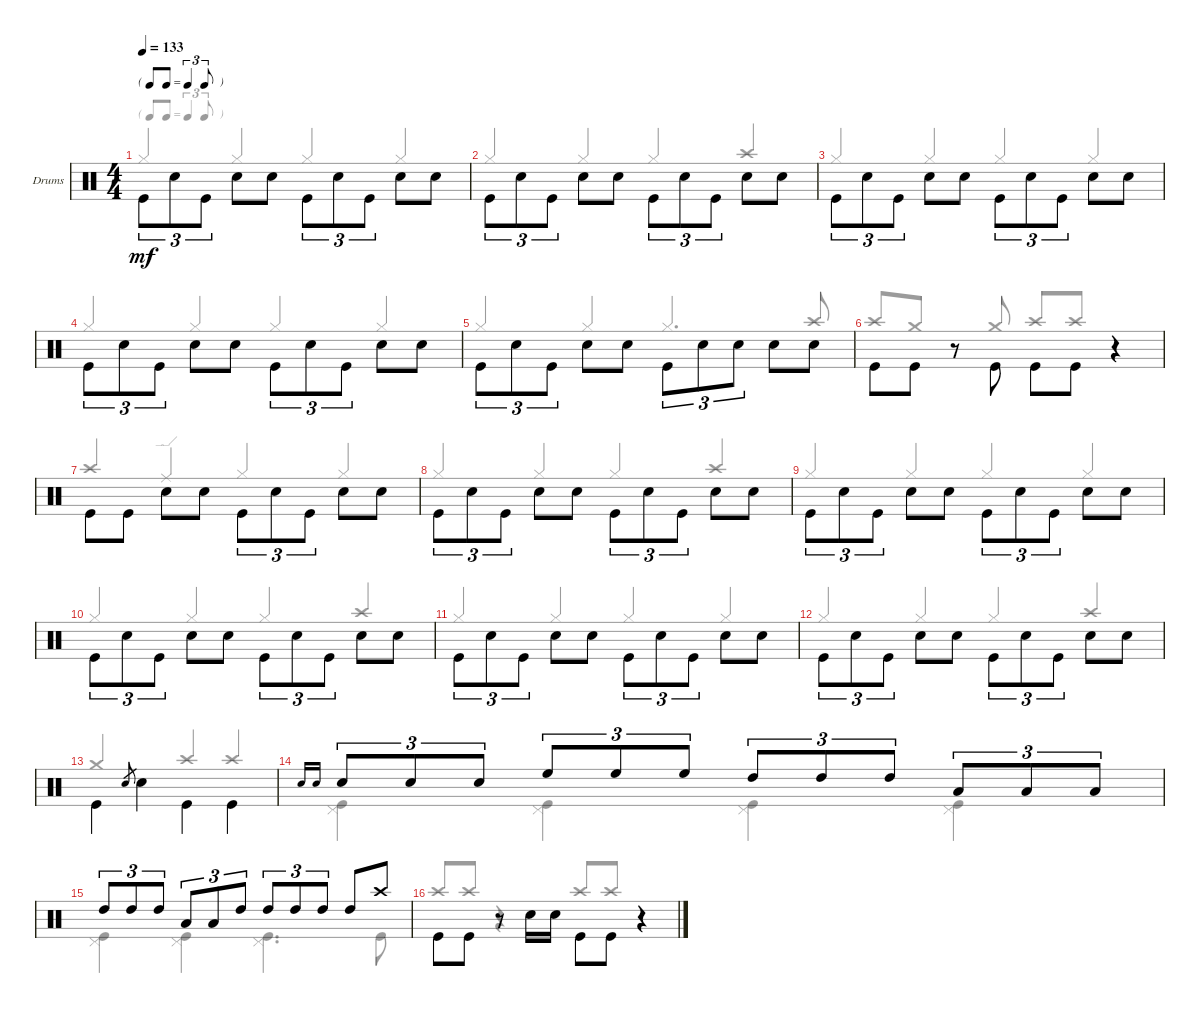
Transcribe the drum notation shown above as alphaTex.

\defaultSystemsLayout 4
\bracketExtendMode groupsimilarinstruments
\firstSystemTrackNameOrientation horizontal
\otherSystemsTrackNameOrientation horizontal
\track ("PETER CRISS" "Drums") {solo instrument percussion}
\staff {score}
\articulation defaults
\voice
\ts (4 4)
\tf triplet8th
\tempo 133
\clef neutral
\ks c "Kick (hit)".8{tu (3 2) dy mf beam invert} "Snare (hit) 2".8{tu (3 2)} "Kick (hit)".8{tu (3 2)} "Snare (hit) 2".8{beam invert} "Snare (hit) 2".8 "Kick (hit)".8{tu (3 2) beam invert} "Snare (hit) 2".8{tu (3 2)} "Kick (hit)".8{tu (3 2)} "Snare (hit) 2".8{beam invert} "Snare (hit) 2".8
|
"Kick (hit)".8{tu (3 2) beam invert} "Snare (hit) 2".8{tu (3 2)} "Kick (hit)".8{tu (3 2)} "Snare (hit) 2".8{beam invert} "Snare (hit) 2".8 "Kick (hit)".8{tu (3 2) beam invert} "Snare (hit) 2".8{tu (3 2)} "Kick (hit)".8{tu (3 2)} "Snare (hit) 2".8{beam invert} "Snare (hit) 2".8 |
"Kick (hit)".8{tu (3 2) beam invert} "Snare (hit) 2".8{tu (3 2)} "Kick (hit)".8{tu (3 2)} "Snare (hit) 2".8{beam invert} "Snare (hit) 2".8 "Kick (hit)".8{tu (3 2) beam invert} "Snare (hit) 2".8{tu (3 2)} "Kick (hit)".8{tu (3 2)} "Snare (hit) 2".8{beam invert} "Snare (hit) 2".8 |
"Kick (hit)".8{tu (3 2) beam invert} "Snare (hit) 2".8{tu (3 2)} "Kick (hit)".8{tu (3 2)} "Snare (hit) 2".8{beam invert} "Snare (hit) 2".8 "Kick (hit)".8{tu (3 2) beam invert} "Snare (hit) 2".8{tu (3 2)} "Kick (hit)".8{tu (3 2)} "Snare (hit) 2".8{beam invert} "Snare (hit) 2".8 |
"Kick (hit)".8{tu (3 2) beam invert} "Snare (hit) 2".8{tu (3 2)} "Kick (hit)".8{tu (3 2)} "Snare (hit) 2".8{beam invert} "Snare (hit) 2".8 "Kick (hit)".8{tu (3 2) beam invert} "Snare (hit) 2".8{tu (3 2)} "Snare (hit) 2".8{tu (3 2)} "Snare (hit) 2".8{beam invert} "Snare (hit) 2".8 |
"Kick (hit)".8{beam invert} "Kick (hit)".8 r.8 "Kick (hit)".8{beam invert} "Kick (hit)".8{beam invert} "Kick (hit)".8 r.4 |
"Kick (hit)".8{beam invert} "Kick (hit)".8 "Snare (hit) 2".8 "Snare (hit) 2".8{beam invert} "Kick (hit)".8{tu (3 2) beam invert} "Snare (hit) 2".8{tu (3 2)} "Kick (hit)".8{tu (3 2)} "Snare (hit) 2".8{beam invert} "Snare (hit) 2".8 |
"Kick (hit)".8{tu (3 2) beam invert} "Snare (hit) 2".8{tu (3 2)} "Kick (hit)".8{tu (3 2)} "Snare (hit) 2".8{beam invert} "Snare (hit) 2".8 "Kick (hit)".8{tu (3 2) beam invert} "Snare (hit) 2".8{tu (3 2)} "Kick (hit)".8{tu (3 2)} "Snare (hit) 2".8{beam invert} "Snare (hit) 2".8 |
"Kick (hit)".8{tu (3 2) beam invert} "Snare (hit) 2".8{tu (3 2)} "Kick (hit)".8{tu (3 2)} "Snare (hit) 2".8{beam invert} "Snare (hit) 2".8 "Kick (hit)".8{tu (3 2) beam invert} "Snare (hit) 2".8{tu (3 2)} "Kick (hit)".8{tu (3 2)} "Snare (hit) 2".8{beam invert} "Snare (hit) 2".8 |
"Kick (hit)".8{tu (3 2) beam invert} "Snare (hit) 2".8{tu (3 2)} "Kick (hit)".8{tu (3 2)} "Snare (hit) 2".8{beam invert} "Snare (hit) 2".8 "Kick (hit)".8{tu (3 2) beam invert} "Snare (hit) 2".8{tu (3 2)} "Kick (hit)".8{tu (3 2)} "Snare (hit) 2".8{beam invert} "Snare (hit) 2".8 |
"Kick (hit)".8{tu (3 2) beam invert} "Snare (hit) 2".8{tu (3 2)} "Kick (hit)".8{tu (3 2)} "Snare (hit) 2".8{beam invert} "Snare (hit) 2".8 "Kick (hit)".8{tu (3 2) beam invert} "Snare (hit) 2".8{tu (3 2)} "Kick (hit)".8{tu (3 2)} "Snare (hit) 2".8{beam invert} "Snare (hit) 2".8 |
"Kick (hit)".8{tu (3 2) beam invert} "Snare (hit) 2".8{tu (3 2)} "Kick (hit)".8{tu (3 2)} "Snare (hit) 2".8{beam invert} "Snare (hit) 2".8 "Kick (hit)".8{tu (3 2) beam invert} "Snare (hit) 2".8{tu (3 2)} "Kick (hit)".8{tu (3 2)} "Snare (hit) 2".8{beam invert} "Snare (hit) 2".8 |
"Kick (hit)".4{beam invert} "Snare (hit) 2".8{gr} "Snare (hit) 2".4{beam invert} "Kick (hit)".4{beam invert} "Kick (hit)".4{beam invert} |
"Snare (hit) 2".16{gr onbeat} "Snare (hit) 2".16{gr onbeat} "Snare (hit) 2".8{tu (3 2)} "Snare (hit) 2".8{tu (3 2)} "Snare (hit) 2".8{tu (3 2)} "High Floor Tom (hit)".8{tu (3 2)} "High Floor Tom (hit)".8{tu (3 2)} "High Floor Tom (hit)".8{tu (3 2)} "High Tom (hit)".8{tu (3 2)} "High Tom (hit)".8{tu (3 2)} "High Tom (hit)".8{tu (3 2)} "Low Tom (hit)".8{tu (3 2)} "Low Tom (hit)".8{tu (3 2)} "Low Tom (hit)".8{tu (3 2)} |
"High Tom (hit)".8{tu (3 2)} "High Tom (hit)".8{tu (3 2)} "High Tom (hit)".8{tu (3 2)} "Low Tom (hit)".8{tu (3 2)} "Low Tom (hit)".8{tu (3 2)} "High Tom (hit)".8{tu (3 2)} "High Tom (hit)".8{tu (3 2)} "High Tom (hit)".8{tu (3 2)} "High Tom (hit)".8{tu (3 2)} "High Tom (hit)".8 "Crash high (hit)".8 |
"Kick (hit)".8{beam invert} "Kick (hit)".8 r.8 "Snare (hit) 2".16{beam invert} "Snare (hit) 2".16 "Kick (hit)".8{beam invert} "Kick (hit)".8 r.4
\voice
\clef neutral
\ottava regular
\simile none
\ks c "Hi-Hat (closed)".4{dy mf beam invert} "Hi-Hat (closed)".4{beam invert} "Hi-Hat (closed)".4{beam invert} "Hi-Hat (closed)".4{beam invert}
|
"Hi-Hat (closed)".4{beam invert} "Hi-Hat (closed)".4{beam invert} "Hi-Hat (closed)".4{beam invert} "Crash high (hit)".4{beam invert} |
"Hi-Hat (closed)".4{beam invert} "Hi-Hat (closed)".4{beam invert} "Hi-Hat (closed)".4{beam invert} "Hi-Hat (closed)".4{beam invert} |
"Hi-Hat (closed)".4{beam invert} "Hi-Hat (closed)".4{beam invert} "Hi-Hat (closed)".4{beam invert} "Hi-Hat (closed)".4{beam invert} |
"Hi-Hat (closed)".4{beam invert} "Hi-Hat (closed)".4{beam invert} "Hi-Hat (closed)".4{d beam invert} "Crash high (hit)".8{beam invert} |
"Crash high (hit)".8{beam invert} "Crash medium (hit)".8 r.8{beam invert} "Crash medium (hit)".8{beam invert} "Crash high (hit)".8{beam invert} "Crash high (hit)".8 r.4{beam invert} |
"Crash high (hit)".4{beam invert} "Ride (edge)".4{beam invert} "Hi-Hat (closed)".4{beam invert} "Hi-Hat (closed)".4{beam invert} |
"Hi-Hat (closed)".4{beam invert} "Hi-Hat (closed)".4{beam invert} "Hi-Hat (closed)".4{beam invert} "Crash high (hit)".4{beam invert} |
"Hi-Hat (closed)".4{beam invert} "Hi-Hat (closed)".4{beam invert} "Hi-Hat (closed)".4{beam invert} "Hi-Hat (closed)".4{beam invert} |
"Hi-Hat (closed)".4{beam invert} "Hi-Hat (closed)".4{beam invert} "Hi-Hat (closed)".4{beam invert} "Crash high (hit)".4{beam invert} |
"Hi-Hat (closed)".4{beam invert} "Hi-Hat (closed)".4{beam invert} "Hi-Hat (closed)".4{beam invert} "Hi-Hat (closed)".4{beam invert} |
"Hi-Hat (closed)".4{beam invert} "Hi-Hat (closed)".4{beam invert} "Hi-Hat (closed)".4{beam invert} "Crash high (hit)".4{beam invert} |
"Crash medium (hit)".2{beam invert} "Crash high (hit)".4{beam invert} "Crash high (hit)".4{beam invert} |
("Kick (hit)" "Pedal Hi-Hat (hit)").4 ("Kick (hit)" "Pedal Hi-Hat (hit)").4 ("Kick (hit)" "Pedal Hi-Hat (hit)").4 ("Kick (hit)" "Pedal Hi-Hat (hit)").4 |
("Kick (hit)" "Pedal Hi-Hat (hit)").4 ("Kick (hit)" "Pedal Hi-Hat (hit)").4 ("Kick (hit)" "Pedal Hi-Hat (hit)").4{d} "Kick (hit)".8 |
"Crash high (hit)".8{beam invert} "Crash high (hit)".8 r.4 "Crash high (hit)".8{beam invert} "Crash high (hit)".8 r.4
